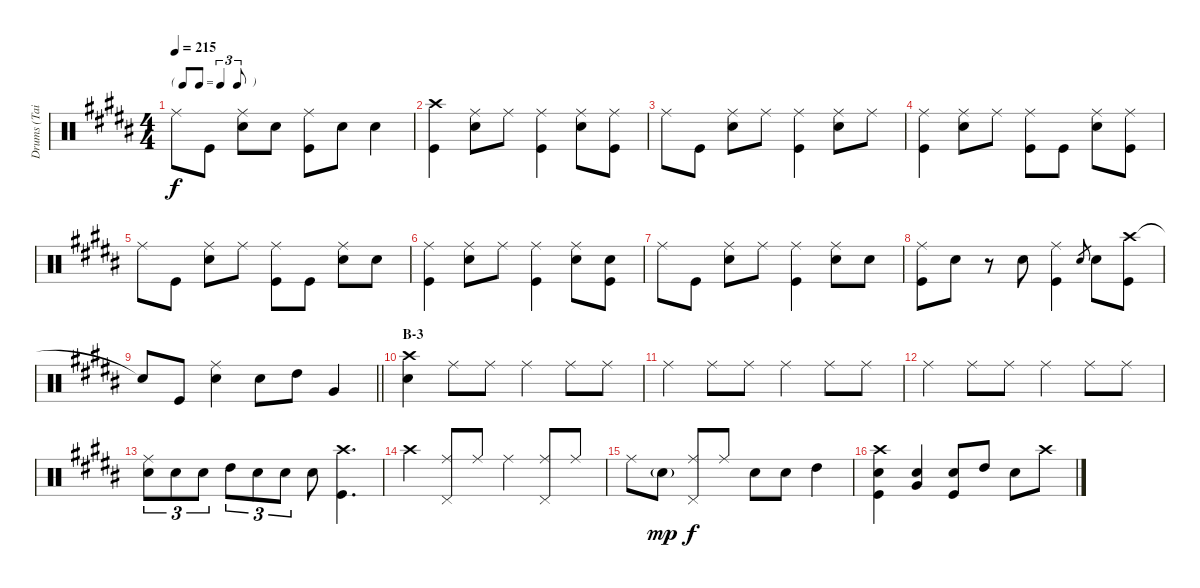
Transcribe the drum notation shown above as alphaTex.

\track ("Drums (Tainaka Ritsu)" "Drums (Tai") {instrument percussion}
\staff {score}
\articulation defaults
\ts (4 4)
\tf triplet8th
\tempo 215
\clef neutral
\ks b "Ride (middle)".8{dy f} "Kick (hit)".8
("Ride (middle)" "Snare (hit) 2").8 "Snare (hit) 2".8 ("Ride (middle)" "Kick (hit)").8 "Snare (hit) 2".8 "Snare (hit) 2".4 |
("Crash high (hit)" "Kick (hit)").4 ("Ride (middle)" "Snare (hit) 2").8 "Ride (middle)".8 ("Ride (middle)" "Kick (hit)").4 ("Ride (middle)" "Snare (hit) 2").8 ("Ride (middle)" "Kick (hit)").8 |
"Ride (middle)".8 "Kick (hit)".8 ("Ride (middle)" "Snare (hit) 2").8 "Ride (middle)".8 ("Ride (middle)" "Kick (hit)").4 ("Ride (middle)" "Snare (hit) 2").8 "Ride (middle)".8 |
("Ride (middle)" "Kick (hit)").4 ("Ride (middle)" "Snare (hit) 2").8 "Ride (middle)".8 ("Ride (middle)" "Kick (hit)").8 "Kick (hit)".8 ("Ride (middle)" "Snare (hit) 2").8 ("Ride (middle)" "Kick (hit)").8 |
"Ride (middle)".8 "Kick (hit)".8 ("Ride (middle)" "Snare (hit) 2").8 "Ride (middle)".8 ("Ride (middle)" "Kick (hit)").8 "Kick (hit)".8 ("Ride (middle)" "Snare (hit) 2").8 "Snare (hit) 2".8 |
("Ride (middle)" "Kick (hit)").4 ("Ride (middle)" "Snare (hit) 2").8 "Ride (middle)".8 ("Ride (middle)" "Kick (hit)").4 ("Ride (middle)" "Snare (hit) 2").8 ("Snare (hit) 2" "Kick (hit)").8 |
"Ride (middle)".8 "Kick (hit)".8 ("Ride (middle)" "Snare (hit) 2").8 "Ride (middle)".8 ("Ride (middle)" "Kick (hit)").4 ("Ride (middle)" "Snare (hit) 2").8 "Snare (hit) 2".8 |
("Ride (middle)" "Kick (hit)").8 "Snare (hit) 2".8 r.8 "Snare (hit) 2".8 ("Ride (middle)" "Kick (hit)").4 "Snare (hit) 2".8{gr} "Snare (hit) 2".8 ("Crash high (hit)" "Kick (hit)").8 |
\barLineRight lightlight "Snare (hit)"{t}.8 "Kick (hit)".8
("Ride (middle)" "Snare (hit) 2").4 "Snare (hit) 2".8 "High Tom (hit)".8 "Very Low Tom (hit)".4 |
\section ("" "B-3")
("Crash high (hit)" "Snare (hit) 2").4 "Ride (middle)".8 "Ride (middle)".8 "Ride (middle)".4 "Ride (middle)".8 "Ride (middle)".8 |
"Ride (middle)".4 "Ride (middle)".8 "Ride (middle)".8 "Ride (middle)".4 "Ride (middle)".8 "Ride (middle)".8 |
"Ride (middle)".4 "Ride (middle)".8 "Ride (middle)".8 "Ride (middle)".4 "Ride (middle)".8 "Ride (middle)".8 |
("Ride (middle)" "Snare (hit) 2").8{tu (3 2)} "Snare (hit) 2".8{tu (3 2)} "Snare (hit) 2".8{tu (3 2)} "High Tom (hit)".8{tu (3 2)} "Snare (hit) 2".8{tu (3 2)} "Snare (hit) 2".8{tu (3 2)} "Snare (hit) 2".8 ("Crash high (hit)" "Kick (hit)").4{d} |
"Crash high (hit)".4 ("Ride (middle)" "Pedal Hi-Hat (hit)").8 "Ride (middle)".8 "Ride (middle)".4 ("Ride (middle)" "Pedal Hi-Hat (hit)").8 "Ride (middle)".8 |
"Ride (middle)".8 "Snare (hit) 2"{g}.8{dy mp} ("Ride (middle)" "Pedal Hi-Hat (hit)").8{dy f} "Ride (middle)".8 "Snare (hit) 2".8 "Snare (hit) 2".8 "High Tom (hit)".4 |
("Crash high (hit)" "Snare (hit) 2" "Kick (hit)").4 ("Snare (hit) 2" "Very Low Tom (hit)").4 ("Snare (hit) 2" "Kick (hit)").8 "High Tom (hit)".8 "Snare (hit) 2".8 "Crash high (hit)".8
